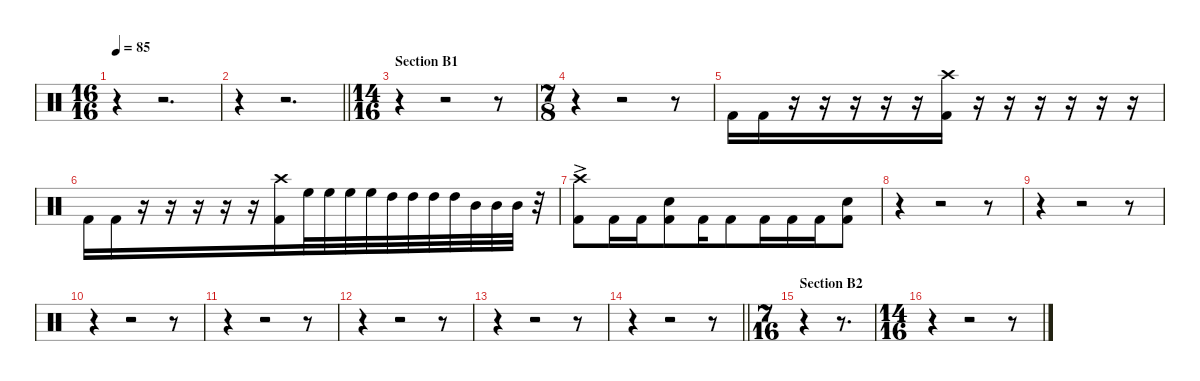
\defaultSystemsLayout 4
\hideDynamics
\bracketExtendMode nobrackets
\singleTrackTrackNamePolicy hidden
\multiTrackTrackNamePolicy hidden
\firstSystemTrackNameMode fullname
\firstSystemTrackNameOrientation horizontal
\otherSystemsTrackNameOrientation horizontal
\track ("Drums" "drm.") {instrument percussion}
\staff {score}
\articulation defaults
\ts (16 16)
\tempo 85
\clef neutral
\ks c
r.4{dy f beam Down} r.2{d beam Down} |
\barLineRight lightlight
r.4{beam Down} r.2{d beam Down} |
\ts (14 16)
\beaming (8 7)
\section ("" "Section B1")
r.4{beam Down} r.2{beam Down} r.8{beam Down} |
\ts (7 8)
\beaming (8 7)
r.4{beam Down} r.2{beam Down} r.8{beam Down} |
"Kick (hit) 2".16{beam Down} "Kick (hit) 2".16{beam Down} r.16{beam Down} r.16{beam Down} r.16{beam Down} r.16{beam Down} r.16{beam Down} ("Crash high (hit)" "Kick (hit) 2").16{beam Down} r.16{beam Down} r.16{beam Down} r.16{beam Down} r.16{beam Down} r.16{beam Down} r.16{beam Down} |
"Kick (hit) 2".16{beam Down} "Kick (hit) 2".16{beam Down} r.16{beam Down} r.16{beam Down} r.16{beam Down} r.16{beam Down} r.16{beam Down} ("Crash high (hit)" "Kick (hit) 2").16{beam Down} "High Floor Tom (hit)".32{beam Down} "High Floor Tom (hit)".32{beam Down} "High Floor Tom (hit)".32{beam Down} "High Floor Tom (hit)".32{beam Down} "High Tom (hit)".32{beam Down} "High Tom (hit)".32{beam Down} "High Tom (hit)".32{beam Down} "High Tom (hit)".32{beam Down} "Mid Tom (hit)".32{beam Down} "Mid Tom (hit)".32{beam Down} "Mid Tom (hit)".32{beam Down} r.32{beam Down} |
("Crash high (hit)"{ac} "Kick (hit) 2").8{beam Down} "Kick (hit) 2".16{beam Down} "Kick (hit) 2".16{beam Down} ("Snare (hit) 2" "Kick (hit) 2").8{beam Down} "Kick (hit) 2".16{beam Down} "Kick (hit) 2".8{beam Down} "Kick (hit) 2".16{beam Down} "Kick (hit) 2".16{beam Down} "Kick (hit) 2".16{beam Down} ("Snare (hit) 2" "Kick (hit) 2").8{beam Down} |
r.4{beam Down} r.2{beam Down} r.8{beam Down} |
r.4{beam Down} r.2{beam Down} r.8{beam Down} |
r.4{beam Down} r.2{beam Down} r.8{beam Down} |
r.4{beam Down} r.2{beam Down} r.8{beam Down} |
r.4{beam Down} r.2{beam Down} r.8{beam Down} |
r.4{beam Down} r.2{beam Down} r.8{beam Down} |
\barLineRight lightlight
r.4{beam Down} r.2{beam Down} r.8{beam Down} |
\ts (7 16)
\beaming (8 3)
\section ("" "Section B2")
r.4{beam Down} r.8{d beam Down} |
\ts (14 16)
\beaming (8 7)
r.4{beam Down} r.2{beam Down} r.8{beam Down}
